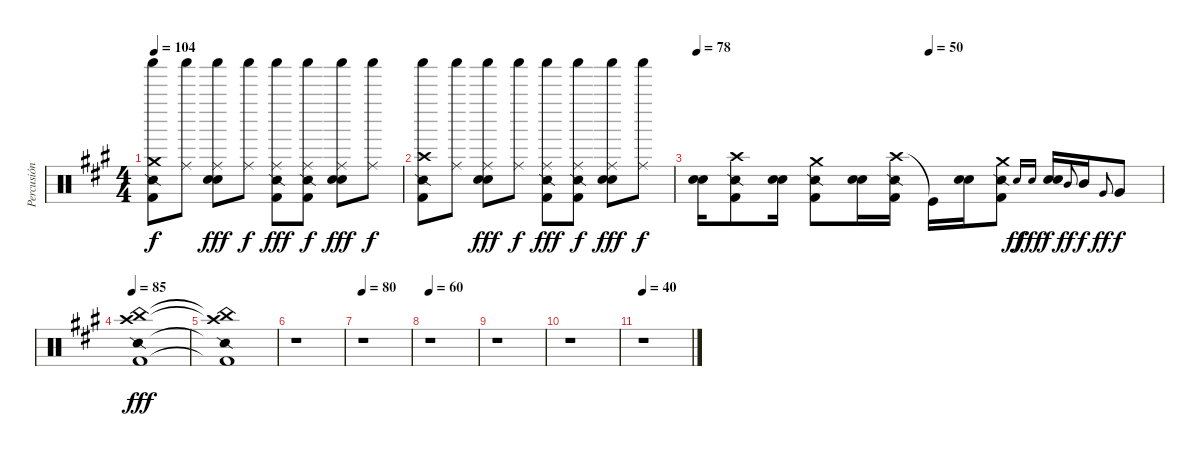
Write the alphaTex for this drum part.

\track ("Percusión" "Percusión") {instrument percussion}
\staff {score}
\articulation defaults
\ts (4 4)
\tempo 104
\clef neutral
\ks a
("Crash medium (hit)" "Kick (hit) 2" "Snare (side stick) 2" "Shaker (hit)").8{dy f} ("Ride (middle)" "Shaker (hit)").8 ("Ride (middle)" "Snare (hit) 2" "Electric Snare (hit)" "Shaker (hit)").8{dy fff} ("Ride (middle)" "Shaker (hit)").8{dy f} ("Ride (middle)" "Kick (hit) 2" "Snare (side stick) 2" "Shaker (hit)").8{dy fff} ("Ride (middle)" "Kick (hit) 2" "Snare (side stick) 2" "Shaker (hit)").8{dy f} ("Ride (middle)" "Snare (hit) 2" "Electric Snare (hit)" "Shaker (hit)").8{dy fff} ("Ride (middle)" "Shaker (hit)").8{dy f} |
("Crash high (hit)" "Kick (hit) 2" "Snare (side stick) 2" "Shaker (hit)").8 ("Ride (middle)" "Shaker (hit)").8 ("Ride (middle)" "Snare (hit) 2" "Electric Snare (hit)" "Shaker (hit)").8{dy fff} ("Ride (middle)" "Shaker (hit)").8{dy f} ("Ride (middle)" "Kick (hit) 2" "Snare (side stick) 2" "Shaker (hit)").8{dy fff} ("Ride (middle)" "Kick (hit) 2" "Snare (side stick) 2" "Shaker (hit)").8{dy f} ("Ride (middle)" "Snare (hit) 2" "Electric Snare (hit)" "Shaker (hit)").8{dy fff} ("Ride (middle)" "Shaker (hit)").8{dy f} |
\tempo 78
\tempo (50 0.5)
("Snare (hit) 2" "Electric Snare (hit)").16 ("Crash high (hit)" "Kick (hit) 2" "Snare (side stick) 2").8 ("Snare (hit) 2" "Electric Snare (hit)").16 ("Crash medium (hit)" "Kick (hit) 2" "Snare (side stick) 2").8 ("Snare (hit) 2" "Electric Snare (hit)").16 ("Crash high (hit)" "Kick (hit) 2" "Snare (side stick) 2").16 "Kick (hit)"{t}.16 ("Snare (hit) 2" "Electric Snare (hit)").16 ("Crash medium (hit)" "Kick (hit) 2" "Snare (side stick) 2").8 "Snare (hit) 2".16{gr onbeat dy ff} "Electric Snare (hit)".16{gr onbeat dy fff} ("Snare (hit) 2" "Electric Snare (hit)").16{dy f} "Mid Tom (hit)".8{gr onbeat dy ff} "Mid Tom (hit)".16{dy f} "Very Low Tom (hit)".8{gr onbeat dy ff} "Very Low Tom (hit)".8{dy f} |
\tempo 85
("China (hit)" "Crash high (hit)" "Kick (hit) 2" "Snare (side stick) 2").1{dy fff} |
("China (hit)"{t} "Crash high (hit)"{t} "Kick (hit) 2"{t} "Snare (side stick) 2"{t}).1 |
r.1 |
\tempo 80
r.1 |
\tempo 60
r.1 |
r.1 |
r.1 |
\tempo 40
r.1
